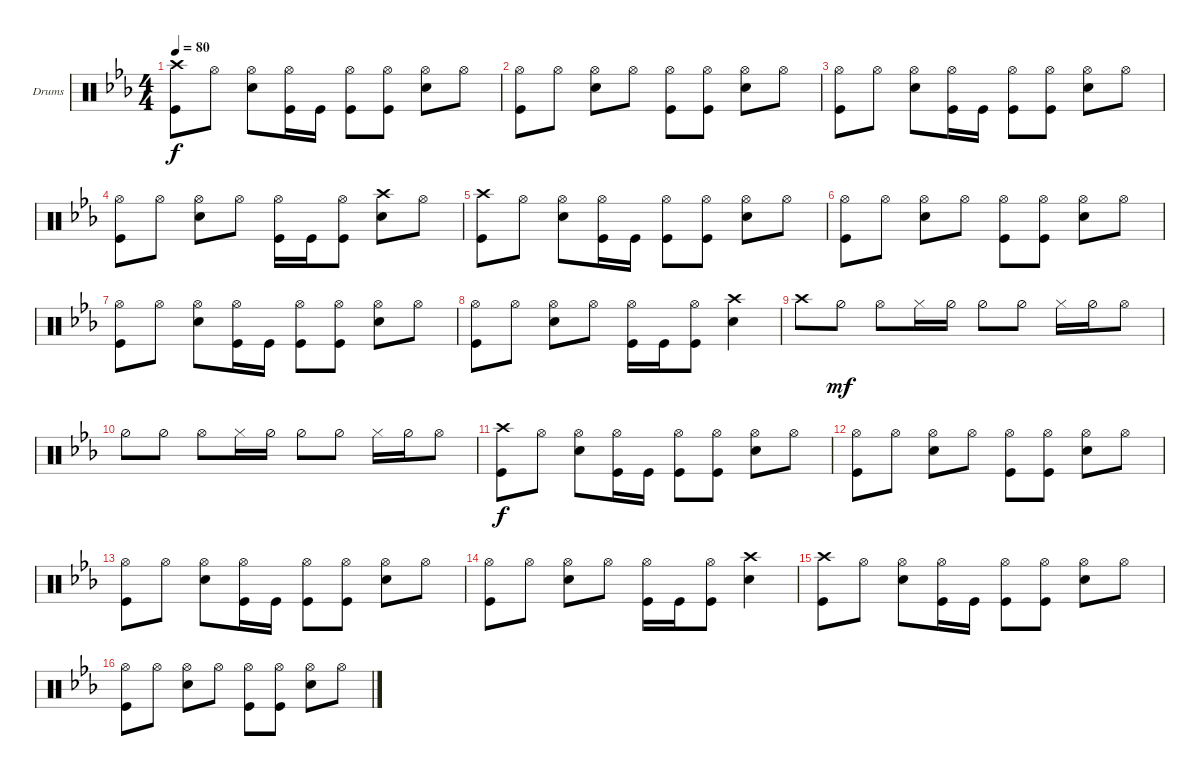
\defaultSystemsLayout 4
\bracketExtendMode groupsimilarinstruments
\firstSystemTrackNameOrientation horizontal
\otherSystemsTrackNameOrientation horizontal
\track ("Drumkit" "Drums") {instrument percussion}
\staff {score}
\articulation defaults
\ts (4 4)
\tempo 80
\clef neutral
\ks cminor
("Crash high (hit)" "Kick (hit)").8{dy f} "Hi-Hat (open)".8 ("Hi-Hat (open)" "Snare (hit) 2").8 ("Hi-Hat (open)" "Kick (hit)").16 "Kick (hit)".16 ("Hi-Hat (open)" "Kick (hit)").8 ("Hi-Hat (open)" "Kick (hit)").8 ("Hi-Hat (open)" "Snare (hit) 2").8 "Hi-Hat (open)".8 |
("Kick (hit)" "Hi-Hat (open)").8 "Hi-Hat (open)".8 ("Hi-Hat (open)" "Snare (hit) 2").8 "Hi-Hat (open)".8 ("Hi-Hat (open)" "Kick (hit)").8 ("Hi-Hat (open)" "Kick (hit)").8 ("Hi-Hat (open)" "Snare (hit) 2").8 "Hi-Hat (open)".8 |
("Kick (hit)" "Hi-Hat (open)").8 "Hi-Hat (open)".8 ("Hi-Hat (open)" "Snare (hit) 2").8 ("Hi-Hat (open)" "Kick (hit)").16 "Kick (hit)".16 ("Hi-Hat (open)" "Kick (hit)").8 ("Hi-Hat (open)" "Kick (hit)").8 ("Hi-Hat (open)" "Snare (hit) 2").8 "Hi-Hat (open)".8 |
("Kick (hit)" "Hi-Hat (open)").8 "Hi-Hat (open)".8 ("Hi-Hat (open)" "Snare (hit) 2").8 "Hi-Hat (open)".8 ("Kick (hit)" "Hi-Hat (open)").16 "Kick (hit)".16 ("Hi-Hat (open)" "Kick (hit)").8 ("Snare (hit) 2" "Crash high (hit)").8 "Hi-Hat (open)".8 |
("Crash high (hit)" "Kick (hit)").8 "Hi-Hat (open)".8 ("Hi-Hat (open)" "Snare (hit) 2").8 ("Hi-Hat (open)" "Kick (hit)").16 "Kick (hit)".16 ("Hi-Hat (open)" "Kick (hit)").8 ("Hi-Hat (open)" "Kick (hit)").8 ("Hi-Hat (open)" "Snare (hit) 2").8 "Hi-Hat (open)".8 |
("Kick (hit)" "Hi-Hat (open)").8 "Hi-Hat (open)".8 ("Hi-Hat (open)" "Snare (hit) 2").8 "Hi-Hat (open)".8 ("Hi-Hat (open)" "Kick (hit)").8 ("Hi-Hat (open)" "Kick (hit)").8 ("Hi-Hat (open)" "Snare (hit) 2").8 "Hi-Hat (open)".8 |
("Kick (hit)" "Hi-Hat (open)").8 "Hi-Hat (open)".8 ("Hi-Hat (open)" "Snare (hit) 2").8 ("Hi-Hat (open)" "Kick (hit)").16 "Kick (hit)".16 ("Hi-Hat (open)" "Kick (hit)").8 ("Hi-Hat (open)" "Kick (hit)").8 ("Hi-Hat (open)" "Snare (hit) 2").8 "Hi-Hat (open)".8 |
("Kick (hit)" "Hi-Hat (open)").8 "Hi-Hat (open)".8 ("Hi-Hat (open)" "Snare (hit) 2").8 "Hi-Hat (open)".8 ("Kick (hit)" "Hi-Hat (open)").16 "Kick (hit)".16 ("Hi-Hat (open)" "Kick (hit)").8 ("Snare (hit) 2" "Crash high (hit)").4 |
"Crash high (hit)".8 "Hi-Hat (half)".8{dy mf} "Hi-Hat (open)".8 "Hi-Hat (closed)".16 "Hi-Hat (half)".16 "Hi-Hat (half)".8 "Hi-Hat (half)".8 "Hi-Hat (closed)".16 "Hi-Hat (half)".16 "Hi-Hat (open)".8 |
"Hi-Hat (half)".8 "Hi-Hat (half)".8 "Hi-Hat (open)".8 "Hi-Hat (closed)".16 "Hi-Hat (half)".16 "Hi-Hat (half)".8 "Hi-Hat (half)".8 "Hi-Hat (closed)".16 "Hi-Hat (half)".16 "Hi-Hat (open)".8 |
("Crash high (hit)" "Kick (hit)").8{dy f} "Hi-Hat (open)".8 ("Hi-Hat (open)" "Snare (hit) 2").8 ("Hi-Hat (open)" "Kick (hit)").16 "Kick (hit)".16 ("Hi-Hat (open)" "Kick (hit)").8 ("Hi-Hat (open)" "Kick (hit)").8 ("Hi-Hat (open)" "Snare (hit) 2").8 "Hi-Hat (open)".8 |
("Kick (hit)" "Hi-Hat (open)").8 "Hi-Hat (open)".8 ("Hi-Hat (open)" "Snare (hit) 2").8 "Hi-Hat (open)".8 ("Hi-Hat (open)" "Kick (hit)").8 ("Hi-Hat (open)" "Kick (hit)").8 ("Hi-Hat (open)" "Snare (hit) 2").8 "Hi-Hat (open)".8 |
("Kick (hit)" "Hi-Hat (open)").8 "Hi-Hat (open)".8 ("Hi-Hat (open)" "Snare (hit) 2").8 ("Hi-Hat (open)" "Kick (hit)").16 "Kick (hit)".16 ("Hi-Hat (open)" "Kick (hit)").8 ("Hi-Hat (open)" "Kick (hit)").8 ("Hi-Hat (open)" "Snare (hit) 2").8 "Hi-Hat (open)".8 |
("Kick (hit)" "Hi-Hat (open)").8 "Hi-Hat (open)".8 ("Hi-Hat (open)" "Snare (hit) 2").8 "Hi-Hat (open)".8 ("Kick (hit)" "Hi-Hat (open)").16 "Kick (hit)".16 ("Hi-Hat (open)" "Kick (hit)").8 ("Snare (hit) 2" "Crash high (hit)").4 |
("Crash high (hit)" "Kick (hit)").8 "Hi-Hat (open)".8 ("Hi-Hat (open)" "Snare (hit) 2").8 ("Hi-Hat (open)" "Kick (hit)").16 "Kick (hit)".16 ("Hi-Hat (open)" "Kick (hit)").8 ("Hi-Hat (open)" "Kick (hit)").8 ("Hi-Hat (open)" "Snare (hit) 2").8 "Hi-Hat (open)".8 |
("Kick (hit)" "Hi-Hat (open)").8 "Hi-Hat (open)".8 ("Hi-Hat (open)" "Snare (hit) 2").8 "Hi-Hat (open)".8 ("Hi-Hat (open)" "Kick (hit)").8 ("Hi-Hat (open)" "Kick (hit)").8 ("Hi-Hat (open)" "Snare (hit) 2").8 "Hi-Hat (open)".8
